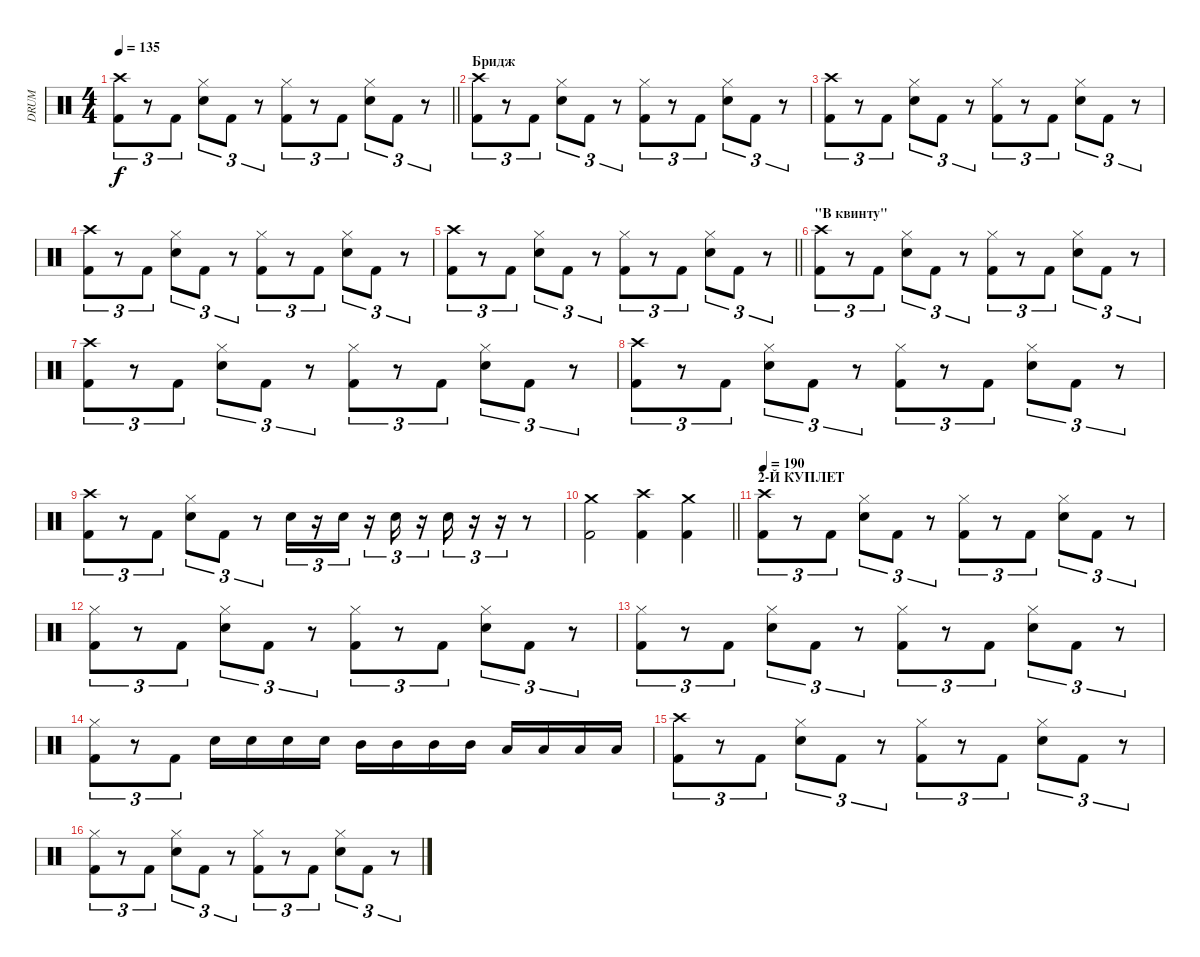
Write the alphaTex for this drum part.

\track ("DRUM" "DRUM") {instrument percussion bank 127}
\staff {score}
\articulation defaults
\ts (4 4)
\tempo 135
\clef neutral
\barLineRight lightlight
\ks c
("Crash high (hit)" "Kick (hit) 2").8{tu (3 2) dy f} r.8{tu (3 2)} "Kick (hit) 2".8{tu (3 2)} ("Hi-Hat (closed)" "Electric Snare (hit)").8{tu (3 2)} "Kick (hit) 2".8{tu (3 2)} r.8{tu (3 2)} ("Hi-Hat (closed)" "Kick (hit) 2").8{tu (3 2)} r.8{tu (3 2)} "Kick (hit) 2".8{tu (3 2)} ("Hi-Hat (closed)" "Electric Snare (hit)").8{tu (3 2)} "Kick (hit) 2".8{tu (3 2)} r.8{tu (3 2)} |
\section ("" "Бридж")
("Crash high (hit)" "Kick (hit) 2").8{tu (3 2)} r.8{tu (3 2)} "Kick (hit) 2".8{tu (3 2)} ("Hi-Hat (closed)" "Electric Snare (hit)").8{tu (3 2)} "Kick (hit) 2".8{tu (3 2)} r.8{tu (3 2)} ("Hi-Hat (closed)" "Kick (hit) 2").8{tu (3 2)} r.8{tu (3 2)} "Kick (hit) 2".8{tu (3 2)} ("Hi-Hat (closed)" "Electric Snare (hit)").8{tu (3 2)} "Kick (hit) 2".8{tu (3 2)} r.8{tu (3 2)} |
("Crash high (hit)" "Kick (hit) 2").8{tu (3 2)} r.8{tu (3 2)} "Kick (hit) 2".8{tu (3 2)} ("Hi-Hat (closed)" "Electric Snare (hit)").8{tu (3 2)} "Kick (hit) 2".8{tu (3 2)} r.8{tu (3 2)} ("Hi-Hat (closed)" "Kick (hit) 2").8{tu (3 2)} r.8{tu (3 2)} "Kick (hit) 2".8{tu (3 2)} ("Hi-Hat (closed)" "Electric Snare (hit)").8{tu (3 2)} "Kick (hit) 2".8{tu (3 2)} r.8{tu (3 2)} |
("Crash high (hit)" "Kick (hit) 2").8{tu (3 2)} r.8{tu (3 2)} "Kick (hit) 2".8{tu (3 2)} ("Hi-Hat (closed)" "Electric Snare (hit)").8{tu (3 2)} "Kick (hit) 2".8{tu (3 2)} r.8{tu (3 2)} ("Hi-Hat (closed)" "Kick (hit) 2").8{tu (3 2)} r.8{tu (3 2)} "Kick (hit) 2".8{tu (3 2)} ("Hi-Hat (closed)" "Electric Snare (hit)").8{tu (3 2)} "Kick (hit) 2".8{tu (3 2)} r.8{tu (3 2)} |
\barLineRight lightlight
("Crash high (hit)" "Kick (hit) 2").8{tu (3 2)} r.8{tu (3 2)} "Kick (hit) 2".8{tu (3 2)} ("Hi-Hat (closed)" "Electric Snare (hit)").8{tu (3 2)} "Kick (hit) 2".8{tu (3 2)} r.8{tu (3 2)} ("Hi-Hat (closed)" "Kick (hit) 2").8{tu (3 2)} r.8{tu (3 2)} "Kick (hit) 2".8{tu (3 2)} ("Hi-Hat (closed)" "Electric Snare (hit)").8{tu (3 2)} "Kick (hit) 2".8{tu (3 2)} r.8{tu (3 2)} |
\section ("" "\"В квинту\"")
("Crash high (hit)" "Kick (hit) 2").8{tu (3 2)} r.8{tu (3 2)} "Kick (hit) 2".8{tu (3 2)} ("Hi-Hat (closed)" "Electric Snare (hit)").8{tu (3 2)} "Kick (hit) 2".8{tu (3 2)} r.8{tu (3 2)} ("Hi-Hat (closed)" "Kick (hit) 2").8{tu (3 2)} r.8{tu (3 2)} "Kick (hit) 2".8{tu (3 2)} ("Hi-Hat (closed)" "Electric Snare (hit)").8{tu (3 2)} "Kick (hit) 2".8{tu (3 2)} r.8{tu (3 2)} |
("Crash high (hit)" "Kick (hit) 2").8{tu (3 2)} r.8{tu (3 2)} "Kick (hit) 2".8{tu (3 2)} ("Hi-Hat (closed)" "Electric Snare (hit)").8{tu (3 2)} "Kick (hit) 2".8{tu (3 2)} r.8{tu (3 2)} ("Hi-Hat (closed)" "Kick (hit) 2").8{tu (3 2)} r.8{tu (3 2)} "Kick (hit) 2".8{tu (3 2)} ("Hi-Hat (closed)" "Electric Snare (hit)").8{tu (3 2)} "Kick (hit) 2".8{tu (3 2)} r.8{tu (3 2)} |
("Crash high (hit)" "Kick (hit) 2").8{tu (3 2)} r.8{tu (3 2)} "Kick (hit) 2".8{tu (3 2)} ("Hi-Hat (closed)" "Electric Snare (hit)").8{tu (3 2)} "Kick (hit) 2".8{tu (3 2)} r.8{tu (3 2)} ("Hi-Hat (closed)" "Kick (hit) 2").8{tu (3 2)} r.8{tu (3 2)} "Kick (hit) 2".8{tu (3 2)} ("Hi-Hat (closed)" "Electric Snare (hit)").8{tu (3 2)} "Kick (hit) 2".8{tu (3 2)} r.8{tu (3 2)} |
("Crash high (hit)" "Kick (hit) 2").8{tu (3 2)} r.8{tu (3 2)} "Kick (hit) 2".8{tu (3 2)} ("Electric Snare (hit)" "Hi-Hat (closed)").8{tu (3 2)} "Kick (hit) 2".8{tu (3 2)} r.8{tu (3 2)} "Electric Snare (hit)".16{tu (3 2)} r.16{tu (3 2)} "Electric Snare (hit)".16{tu (3 2)} r.16{tu (3 2)} "Electric Snare (hit)".16{tu (3 2)} r.16{tu (3 2)} "Electric Snare (hit)".16{tu (3 2)} r.16{tu (3 2)} r.16{tu (3 2)} r.8 |
\barLineRight lightlight
("Crash medium (hit)" "Kick (hit) 2").2 ("Kick (hit) 2" "Crash high (hit)").4 ("Kick (hit) 2" "Crash medium (hit)").4 |
\section ("" "2-Й КУПЛЕТ")
\tempo 180
\tempo 190
("Crash high (hit)" "Kick (hit) 2").8{tu (3 2)} r.8{tu (3 2)} "Kick (hit) 2".8{tu (3 2)} ("Hi-Hat (closed)" "Electric Snare (hit)").8{tu (3 2)} "Kick (hit) 2".8{tu (3 2)} r.8{tu (3 2)} ("Hi-Hat (closed)" "Kick (hit) 2").8{tu (3 2)} r.8{tu (3 2)} "Kick (hit) 2".8{tu (3 2)} ("Hi-Hat (closed)" "Electric Snare (hit)").8{tu (3 2)} "Kick (hit) 2".8{tu (3 2)} r.8{tu (3 2)} |
("Hi-Hat (closed)" "Kick (hit) 2").8{tu (3 2)} r.8{tu (3 2)} "Kick (hit) 2".8{tu (3 2)} ("Hi-Hat (closed)" "Electric Snare (hit)").8{tu (3 2)} "Kick (hit) 2".8{tu (3 2)} r.8{tu (3 2)} ("Hi-Hat (closed)" "Kick (hit) 2").8{tu (3 2)} r.8{tu (3 2)} "Kick (hit) 2".8{tu (3 2)} ("Hi-Hat (closed)" "Electric Snare (hit)").8{tu (3 2)} "Kick (hit) 2".8{tu (3 2)} r.8{tu (3 2)} |
("Hi-Hat (closed)" "Kick (hit) 2").8{tu (3 2)} r.8{tu (3 2)} "Kick (hit) 2".8{tu (3 2)} ("Hi-Hat (closed)" "Electric Snare (hit)").8{tu (3 2)} "Kick (hit) 2".8{tu (3 2)} r.8{tu (3 2)} ("Hi-Hat (closed)" "Kick (hit) 2").8{tu (3 2)} r.8{tu (3 2)} "Kick (hit) 2".8{tu (3 2)} ("Hi-Hat (closed)" "Electric Snare (hit)").8{tu (3 2)} "Kick (hit) 2".8{tu (3 2)} r.8{tu (3 2)} |
("Hi-Hat (closed)" "Kick (hit) 2").8{tu (3 2)} r.8{tu (3 2)} "Kick (hit) 2".8{tu (3 2)} "Electric Snare (hit)".16 "Electric Snare (hit)".16 "Electric Snare (hit)".16 "Electric Snare (hit)".16 "Mid Tom (hit)".16 "Mid Tom (hit)".16 "Mid Tom (hit)".16 "Mid Tom (hit)".16 "Low Tom (hit)".16 "Low Tom (hit)".16 "Low Tom (hit)".16 "Low Tom (hit)".16 |
("Crash high (hit)" "Kick (hit) 2").8{tu (3 2)} r.8{tu (3 2)} "Kick (hit) 2".8{tu (3 2)} ("Hi-Hat (closed)" "Electric Snare (hit)").8{tu (3 2)} "Kick (hit) 2".8{tu (3 2)} r.8{tu (3 2)} ("Hi-Hat (closed)" "Kick (hit) 2").8{tu (3 2)} r.8{tu (3 2)} "Kick (hit) 2".8{tu (3 2)} ("Hi-Hat (closed)" "Electric Snare (hit)").8{tu (3 2)} "Kick (hit) 2".8{tu (3 2)} r.8{tu (3 2)} |
("Hi-Hat (closed)" "Kick (hit) 2").8{tu (3 2)} r.8{tu (3 2)} "Kick (hit) 2".8{tu (3 2)} ("Hi-Hat (closed)" "Electric Snare (hit)").8{tu (3 2)} "Kick (hit) 2".8{tu (3 2)} r.8{tu (3 2)} ("Hi-Hat (closed)" "Kick (hit) 2").8{tu (3 2)} r.8{tu (3 2)} "Kick (hit) 2".8{tu (3 2)} ("Hi-Hat (closed)" "Electric Snare (hit)").8{tu (3 2)} "Kick (hit) 2".8{tu (3 2)} r.8{tu (3 2)}
